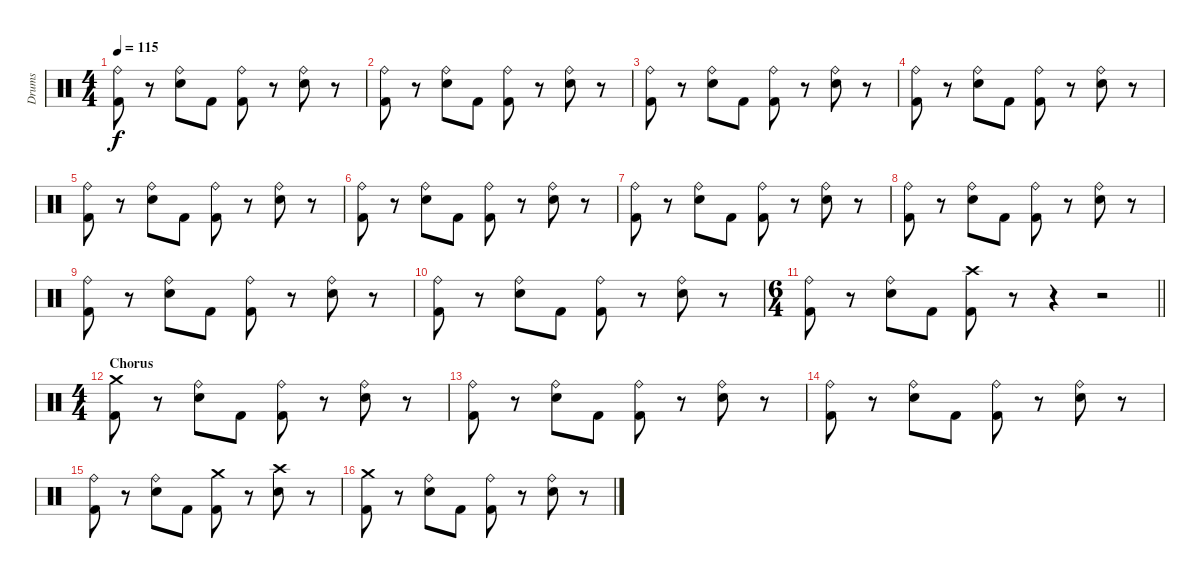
\track ("Drums" "Drums") {instrument percussion}
\staff {score}
\articulation defaults
\ts (4 4)
\tempo 115
\clef neutral
\ks c
("Ride (bell)" "Kick (hit) 2").8{dy f} r.8 ("Ride (bell)" "Electric Snare (hit)").8 "Kick (hit) 2".8 ("Ride (bell)" "Kick (hit) 2").8 r.8 ("Ride (bell)" "Electric Snare (hit)").8 r.8 |
("Ride (bell)" "Kick (hit) 2").8 r.8 ("Ride (bell)" "Electric Snare (hit)").8 "Kick (hit) 2".8 ("Ride (bell)" "Kick (hit) 2").8 r.8 ("Ride (bell)" "Electric Snare (hit)").8 r.8 |
("Ride (bell)" "Kick (hit) 2").8 r.8 ("Ride (bell)" "Electric Snare (hit)").8 "Kick (hit) 2".8 ("Ride (bell)" "Kick (hit) 2").8 r.8 ("Ride (bell)" "Electric Snare (hit)").8 r.8 |
("Ride (bell)" "Kick (hit) 2").8 r.8 ("Ride (bell)" "Electric Snare (hit)").8 "Kick (hit) 2".8 ("Ride (bell)" "Kick (hit) 2").8 r.8 ("Ride (bell)" "Electric Snare (hit)").8 r.8 |
("Ride (bell)" "Kick (hit) 2").8 r.8 ("Ride (bell)" "Electric Snare (hit)").8 "Kick (hit) 2".8 ("Ride (bell)" "Kick (hit) 2").8 r.8 ("Ride (bell)" "Electric Snare (hit)").8 r.8 |
("Ride (bell)" "Kick (hit) 2").8 r.8 ("Ride (bell)" "Electric Snare (hit)").8 "Kick (hit) 2".8 ("Ride (bell)" "Kick (hit) 2").8 r.8 ("Ride (bell)" "Electric Snare (hit)").8 r.8 |
("Ride (bell)" "Kick (hit) 2").8 r.8 ("Ride (bell)" "Electric Snare (hit)").8 "Kick (hit) 2".8 ("Ride (bell)" "Kick (hit) 2").8 r.8 ("Ride (bell)" "Electric Snare (hit)").8 r.8 |
("Ride (bell)" "Kick (hit) 2").8 r.8 ("Ride (bell)" "Electric Snare (hit)").8 "Kick (hit) 2".8 ("Ride (bell)" "Kick (hit) 2").8 r.8 ("Ride (bell)" "Electric Snare (hit)").8 r.8 |
("Ride (bell)" "Kick (hit) 2").8 r.8 ("Ride (bell)" "Electric Snare (hit)").8 "Kick (hit) 2".8 ("Ride (bell)" "Kick (hit) 2").8 r.8 ("Ride (bell)" "Electric Snare (hit)").8 r.8 |
("Ride (bell)" "Kick (hit) 2").8 r.8 ("Ride (bell)" "Electric Snare (hit)").8 "Kick (hit) 2".8 ("Ride (bell)" "Kick (hit) 2").8 r.8 ("Ride (bell)" "Electric Snare (hit)").8 r.8 |
\ts (6 4)
\barLineRight lightlight
("Ride (bell)" "Kick (hit) 2").8 r.8 ("Ride (bell)" "Electric Snare (hit)").8 "Kick (hit) 2".8 ("Crash high (hit)" "Kick (hit) 2").8 r.8 r.4 r.2 |
\ts (4 4)
\section ("" "Chorus")
("Crash medium (hit)" "Kick (hit) 2").8 r.8 ("Ride (bell)" "Electric Snare (hit)").8 "Kick (hit) 2".8 ("Ride (bell)" "Kick (hit) 2").8 r.8 ("Ride (bell)" "Electric Snare (hit)").8 r.8 |
("Ride (bell)" "Kick (hit) 2").8 r.8 ("Ride (bell)" "Electric Snare (hit)").8 "Kick (hit) 2".8 ("Ride (bell)" "Kick (hit) 2").8 r.8 ("Ride (bell)" "Electric Snare (hit)").8 r.8 |
("Ride (bell)" "Kick (hit) 2").8 r.8 ("Ride (bell)" "Electric Snare (hit)").8 "Kick (hit) 2".8 ("Ride (bell)" "Kick (hit) 2").8 r.8 ("Ride (bell)" "Electric Snare (hit)").8 r.8 |
("Ride (bell)" "Kick (hit) 2").8 r.8 ("Ride (bell)" "Electric Snare (hit)").8 "Kick (hit) 2".8 ("Crash medium (hit)" "Kick (hit) 2").8 r.8 ("Crash high (hit)" "Electric Snare (hit)").8 r.8 |
("Crash medium (hit)" "Kick (hit) 2").8 r.8 ("Ride (bell)" "Electric Snare (hit)").8 "Kick (hit) 2".8 ("Ride (bell)" "Kick (hit) 2").8 r.8 ("Ride (bell)" "Electric Snare (hit)").8 r.8
